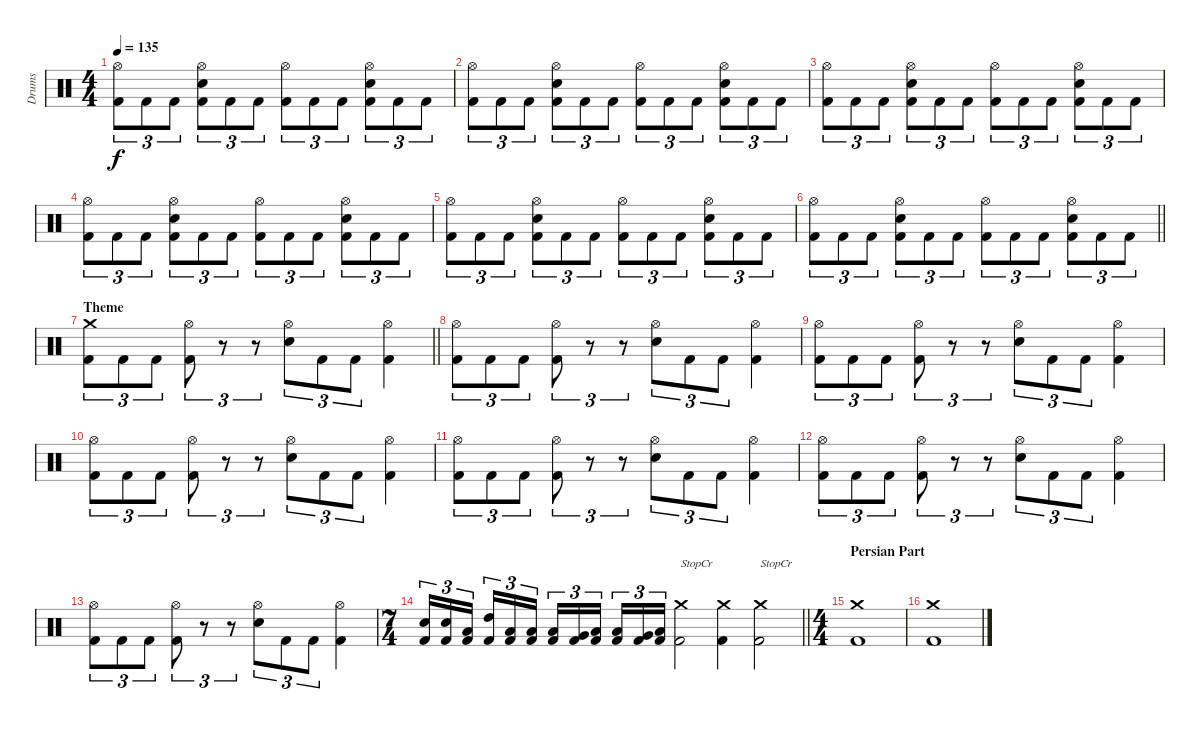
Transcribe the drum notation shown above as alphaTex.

\track ("Drums" "Drums") {instrument percussion}
\staff {score}
\articulation defaults
\ts (4 4)
\tempo 135
\clef neutral
\ks c
("Hi-Hat (open)" "Kick (hit) 2").8{tu (3 2) dy f} "Kick (hit) 2".8{tu (3 2)} "Kick (hit) 2".8{tu (3 2)} ("Hi-Hat (open)" "Snare (hit) 2" "Kick (hit) 2").8{tu (3 2)} "Kick (hit) 2".8{tu (3 2)} "Kick (hit) 2".8{tu (3 2)} ("Hi-Hat (open)" "Kick (hit) 2").8{tu (3 2)} "Kick (hit) 2".8{tu (3 2)} "Kick (hit) 2".8{tu (3 2)} ("Hi-Hat (open)" "Snare (hit) 2" "Kick (hit) 2").8{tu (3 2)} "Kick (hit) 2".8{tu (3 2)} "Kick (hit) 2".8{tu (3 2)} |
("Hi-Hat (open)" "Kick (hit) 2").8{tu (3 2)} "Kick (hit) 2".8{tu (3 2)} "Kick (hit) 2".8{tu (3 2)} ("Hi-Hat (open)" "Snare (hit) 2" "Kick (hit) 2").8{tu (3 2)} "Kick (hit) 2".8{tu (3 2)} "Kick (hit) 2".8{tu (3 2)} ("Hi-Hat (open)" "Kick (hit) 2").8{tu (3 2)} "Kick (hit) 2".8{tu (3 2)} "Kick (hit) 2".8{tu (3 2)} ("Hi-Hat (open)" "Snare (hit) 2" "Kick (hit) 2").8{tu (3 2)} "Kick (hit) 2".8{tu (3 2)} "Kick (hit) 2".8{tu (3 2)} |
("Hi-Hat (open)" "Kick (hit) 2").8{tu (3 2)} "Kick (hit) 2".8{tu (3 2)} "Kick (hit) 2".8{tu (3 2)} ("Hi-Hat (open)" "Snare (hit) 2" "Kick (hit) 2").8{tu (3 2)} "Kick (hit) 2".8{tu (3 2)} "Kick (hit) 2".8{tu (3 2)} ("Hi-Hat (open)" "Kick (hit) 2").8{tu (3 2)} "Kick (hit) 2".8{tu (3 2)} "Kick (hit) 2".8{tu (3 2)} ("Hi-Hat (open)" "Snare (hit) 2" "Kick (hit) 2").8{tu (3 2)} "Kick (hit) 2".8{tu (3 2)} "Kick (hit) 2".8{tu (3 2)} |
("Hi-Hat (open)" "Kick (hit) 2").8{tu (3 2)} "Kick (hit) 2".8{tu (3 2)} "Kick (hit) 2".8{tu (3 2)} ("Hi-Hat (open)" "Snare (hit) 2" "Kick (hit) 2").8{tu (3 2)} "Kick (hit) 2".8{tu (3 2)} "Kick (hit) 2".8{tu (3 2)} ("Hi-Hat (open)" "Kick (hit) 2").8{tu (3 2)} "Kick (hit) 2".8{tu (3 2)} "Kick (hit) 2".8{tu (3 2)} ("Hi-Hat (open)" "Snare (hit) 2" "Kick (hit) 2").8{tu (3 2)} "Kick (hit) 2".8{tu (3 2)} "Kick (hit) 2".8{tu (3 2)} |
("Hi-Hat (open)" "Kick (hit) 2").8{tu (3 2)} "Kick (hit) 2".8{tu (3 2)} "Kick (hit) 2".8{tu (3 2)} ("Hi-Hat (open)" "Snare (hit) 2" "Kick (hit) 2").8{tu (3 2)} "Kick (hit) 2".8{tu (3 2)} "Kick (hit) 2".8{tu (3 2)} ("Hi-Hat (open)" "Kick (hit) 2").8{tu (3 2)} "Kick (hit) 2".8{tu (3 2)} "Kick (hit) 2".8{tu (3 2)} ("Hi-Hat (open)" "Snare (hit) 2" "Kick (hit) 2").8{tu (3 2)} "Kick (hit) 2".8{tu (3 2)} "Kick (hit) 2".8{tu (3 2)} |
\barLineRight lightlight
("Hi-Hat (open)" "Kick (hit) 2").8{tu (3 2)} "Kick (hit) 2".8{tu (3 2)} "Kick (hit) 2".8{tu (3 2)} ("Hi-Hat (open)" "Snare (hit) 2" "Kick (hit) 2").8{tu (3 2)} "Kick (hit) 2".8{tu (3 2)} "Kick (hit) 2".8{tu (3 2)} ("Hi-Hat (open)" "Kick (hit) 2").8{tu (3 2)} "Kick (hit) 2".8{tu (3 2)} "Kick (hit) 2".8{tu (3 2)} ("Hi-Hat (open)" "Snare (hit) 2" "Kick (hit) 2").8{tu (3 2)} "Kick (hit) 2".8{tu (3 2)} "Kick (hit) 2".8{tu (3 2)} |
\section ("" "Theme")
\barLineRight lightlight
("Crash medium (hit)" "Kick (hit) 2").8{tu (3 2)} "Kick (hit) 2".8{tu (3 2)} "Kick (hit) 2".8{tu (3 2)} ("Hi-Hat (open)" "Kick (hit) 2").8{tu (3 2)} r.8{tu (3 2)} r.8{tu (3 2)} ("Hi-Hat (open)" "Snare (hit) 2").8{tu (3 2)} "Kick (hit) 2".8{tu (3 2)} "Kick (hit) 2".8{tu (3 2)} ("Hi-Hat (open)" "Kick (hit) 2").4 |
("Hi-Hat (open)" "Kick (hit) 2").8{tu (3 2)} "Kick (hit) 2".8{tu (3 2)} "Kick (hit) 2".8{tu (3 2)} ("Hi-Hat (open)" "Kick (hit) 2").8{tu (3 2)} r.8{tu (3 2)} r.8{tu (3 2)} ("Hi-Hat (open)" "Snare (hit) 2").8{tu (3 2)} "Kick (hit) 2".8{tu (3 2)} "Kick (hit) 2".8{tu (3 2)} ("Hi-Hat (open)" "Kick (hit) 2").4 |
("Hi-Hat (open)" "Kick (hit) 2").8{tu (3 2)} "Kick (hit) 2".8{tu (3 2)} "Kick (hit) 2".8{tu (3 2)} ("Hi-Hat (open)" "Kick (hit) 2").8{tu (3 2)} r.8{tu (3 2)} r.8{tu (3 2)} ("Hi-Hat (open)" "Snare (hit) 2").8{tu (3 2)} "Kick (hit) 2".8{tu (3 2)} "Kick (hit) 2".8{tu (3 2)} ("Hi-Hat (open)" "Kick (hit) 2").4 |
("Hi-Hat (open)" "Kick (hit) 2").8{tu (3 2)} "Kick (hit) 2".8{tu (3 2)} "Kick (hit) 2".8{tu (3 2)} ("Hi-Hat (open)" "Kick (hit) 2").8{tu (3 2)} r.8{tu (3 2)} r.8{tu (3 2)} ("Hi-Hat (open)" "Snare (hit) 2").8{tu (3 2)} "Kick (hit) 2".8{tu (3 2)} "Kick (hit) 2".8{tu (3 2)} ("Hi-Hat (open)" "Kick (hit) 2").4 |
("Hi-Hat (open)" "Kick (hit) 2").8{tu (3 2)} "Kick (hit) 2".8{tu (3 2)} "Kick (hit) 2".8{tu (3 2)} ("Hi-Hat (open)" "Kick (hit) 2").8{tu (3 2)} r.8{tu (3 2)} r.8{tu (3 2)} ("Hi-Hat (open)" "Snare (hit) 2").8{tu (3 2)} "Kick (hit) 2".8{tu (3 2)} "Kick (hit) 2".8{tu (3 2)} ("Hi-Hat (open)" "Kick (hit) 2").4 |
("Hi-Hat (open)" "Kick (hit) 2").8{tu (3 2)} "Kick (hit) 2".8{tu (3 2)} "Kick (hit) 2".8{tu (3 2)} ("Hi-Hat (open)" "Kick (hit) 2").8{tu (3 2)} r.8{tu (3 2)} r.8{tu (3 2)} ("Hi-Hat (open)" "Snare (hit) 2").8{tu (3 2)} "Kick (hit) 2".8{tu (3 2)} "Kick (hit) 2".8{tu (3 2)} ("Hi-Hat (open)" "Kick (hit) 2").4 |
("Hi-Hat (open)" "Kick (hit) 2").8{tu (3 2)} "Kick (hit) 2".8{tu (3 2)} "Kick (hit) 2".8{tu (3 2)} ("Hi-Hat (open)" "Kick (hit) 2").8{tu (3 2)} r.8{tu (3 2)} r.8{tu (3 2)} ("Hi-Hat (open)" "Snare (hit) 2").8{tu (3 2)} "Kick (hit) 2".8{tu (3 2)} "Kick (hit) 2".8{tu (3 2)} ("Hi-Hat (open)" "Kick (hit) 2").4 |
\ts (7 4)
\barLineRight lightlight
("Snare (hit) 2" "Kick (hit) 2").16{tu (3 2)} ("Snare (hit) 2" "Kick (hit) 2").16{tu (3 2)} ("Low Floor Tom (hit)" "Kick (hit) 2").16{tu (3 2) beam splitsecondary} ("High Tom (hit)" "Kick (hit) 2").16{tu (3 2)} ("Low Floor Tom (hit)" "Kick (hit) 2").16{tu (3 2)} ("Low Tom (hit)" "Kick (hit) 2").16{tu (3 2)} ("Low Floor Tom (hit)" "Kick (hit) 2").16{tu (3 2)} ("Very Low Tom (hit)" "Kick (hit) 2").16{tu (3 2)} ("Low Floor Tom (hit)" "Kick (hit) 2").16{tu (3 2) beam splitsecondary} ("Low Floor Tom (hit)" "Kick (hit) 2").16{tu (3 2)} ("Very Low Tom (hit)" "Kick (hit) 2").16{tu (3 2)} ("Low Floor Tom (hit)" "Kick (hit) 2").16{tu (3 2)} ("Crash medium (hit)" "Kick (hit) 2").2{txt "StopCr"} ("Crash medium (hit)" "Kick (hit) 2").4 ("Crash medium (hit)" "Kick (hit) 2").2{txt "StopCr"} |
\ts (4 4)
\section ("" "Persian Part")
("Crash medium (hit)" "Kick (hit) 2").1 |
("Crash medium (hit)" "Kick (hit) 2").1
